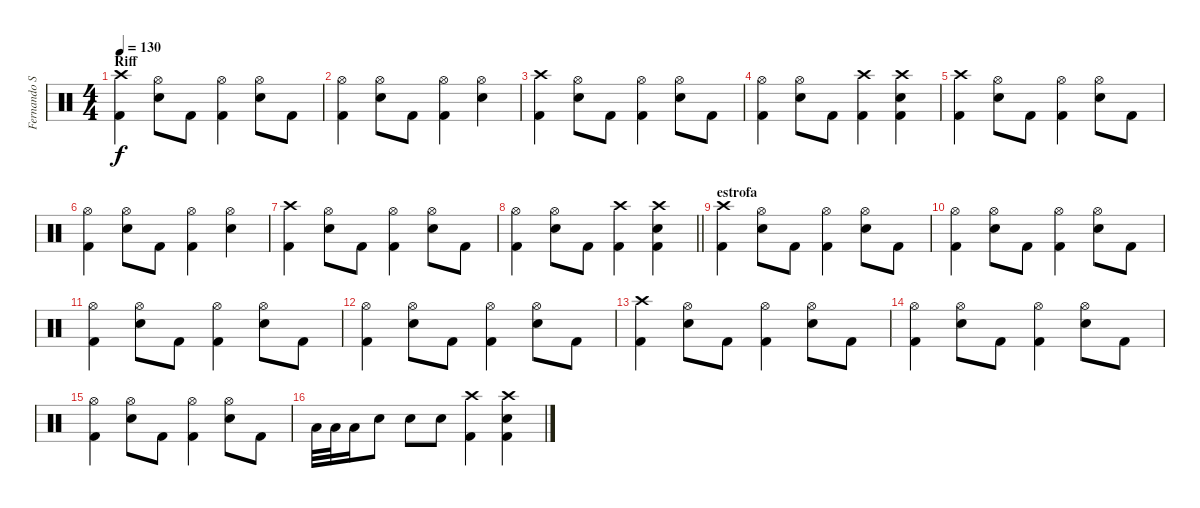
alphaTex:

\track ("Fernando Scarcella" "Fernando S") {instrument percussion}
\staff {score}
\articulation defaults
\ts (4 4)
\section ("" "Riff")
\tempo 130
\clef neutral
\ks c
("Crash high (hit)" "Kick (hit) 2").4{dy f} ("Hi-Hat (open)" "Snare (hit) 2").8 "Kick (hit) 2".8 ("Hi-Hat (open)" "Kick (hit) 2").4 ("Hi-Hat (open)" "Snare (hit) 2").8 "Kick (hit) 2".8 |
("Hi-Hat (open)" "Kick (hit) 2").4 ("Hi-Hat (open)" "Snare (hit) 2").8 "Kick (hit) 2".8 ("Hi-Hat (open)" "Kick (hit) 2").4 ("Hi-Hat (open)" "Snare (hit) 2").4 |
("Crash high (hit)" "Kick (hit) 2").4 ("Hi-Hat (open)" "Snare (hit) 2").8 "Kick (hit) 2".8 ("Hi-Hat (open)" "Kick (hit) 2").4 ("Hi-Hat (open)" "Snare (hit) 2").8 "Kick (hit) 2".8 |
("Hi-Hat (open)" "Kick (hit) 2").4 ("Hi-Hat (open)" "Snare (hit) 2").8 "Kick (hit) 2".8 ("Crash high (hit)" "Kick (hit) 2").4 ("Crash high (hit)" "Snare (hit) 2" "Kick (hit) 2").4 |
("Crash high (hit)" "Kick (hit) 2").4 ("Hi-Hat (open)" "Snare (hit) 2").8 "Kick (hit) 2".8 ("Hi-Hat (open)" "Kick (hit) 2").4 ("Hi-Hat (open)" "Snare (hit) 2").8 "Kick (hit) 2".8 |
("Hi-Hat (open)" "Kick (hit) 2").4 ("Hi-Hat (open)" "Snare (hit) 2").8 "Kick (hit) 2".8 ("Hi-Hat (open)" "Kick (hit) 2").4 ("Hi-Hat (open)" "Snare (hit) 2").4 |
("Crash high (hit)" "Kick (hit) 2").4 ("Hi-Hat (open)" "Snare (hit) 2").8 "Kick (hit) 2".8 ("Hi-Hat (open)" "Kick (hit) 2").4 ("Hi-Hat (open)" "Snare (hit) 2").8 "Kick (hit) 2".8 |
\barLineRight lightlight
("Hi-Hat (open)" "Kick (hit) 2").4 ("Hi-Hat (open)" "Snare (hit) 2").8 "Kick (hit) 2".8 ("Crash high (hit)" "Kick (hit) 2").4 ("Crash high (hit)" "Snare (hit) 2" "Kick (hit) 2").4 |
\section ("" "estrofa")
("Crash high (hit)" "Kick (hit) 2").4 ("Hi-Hat (open)" "Snare (hit) 2").8 "Kick (hit) 2".8 ("Hi-Hat (open)" "Kick (hit) 2").4 ("Hi-Hat (open)" "Snare (hit) 2").8 "Kick (hit) 2".8 |
("Hi-Hat (open)" "Kick (hit) 2").4 ("Hi-Hat (open)" "Snare (hit) 2").8 "Kick (hit) 2".8 ("Hi-Hat (open)" "Kick (hit) 2").4 ("Hi-Hat (open)" "Snare (hit) 2").8 "Kick (hit) 2".8 |
("Hi-Hat (open)" "Kick (hit) 2").4 ("Hi-Hat (open)" "Snare (hit) 2").8 "Kick (hit) 2".8 ("Hi-Hat (open)" "Kick (hit) 2").4 ("Hi-Hat (open)" "Snare (hit) 2").8 "Kick (hit) 2".8 |
("Hi-Hat (open)" "Kick (hit) 2").4 ("Hi-Hat (open)" "Snare (hit) 2").8 "Kick (hit) 2".8 ("Hi-Hat (open)" "Kick (hit) 2").4 ("Hi-Hat (open)" "Snare (hit) 2").8 "Kick (hit) 2".8 |
("Crash high (hit)" "Kick (hit) 2").4 ("Hi-Hat (open)" "Snare (hit) 2").8 "Kick (hit) 2".8 ("Hi-Hat (open)" "Kick (hit) 2").4 ("Hi-Hat (open)" "Snare (hit) 2").8 "Kick (hit) 2".8 |
("Hi-Hat (open)" "Kick (hit) 2").4 ("Hi-Hat (open)" "Snare (hit) 2").8 "Kick (hit) 2".8 ("Hi-Hat (open)" "Kick (hit) 2").4 ("Hi-Hat (open)" "Snare (hit) 2").8 "Kick (hit) 2".8 |
("Hi-Hat (open)" "Kick (hit) 2").4 ("Hi-Hat (open)" "Snare (hit) 2").8 "Kick (hit) 2".8 ("Hi-Hat (open)" "Kick (hit) 2").4 ("Hi-Hat (open)" "Snare (hit) 2").8 "Kick (hit) 2".8 |
"Low Floor Tom (hit)".32 "Low Floor Tom (hit)".32 "Low Floor Tom (hit)".16 "Snare (hit) 2".8 "Snare (hit) 2".8 "Snare (hit) 2".8 ("Crash high (hit)" "Kick (hit) 2").4 ("Crash high (hit)" "Snare (hit) 2" "Kick (hit) 2").4
